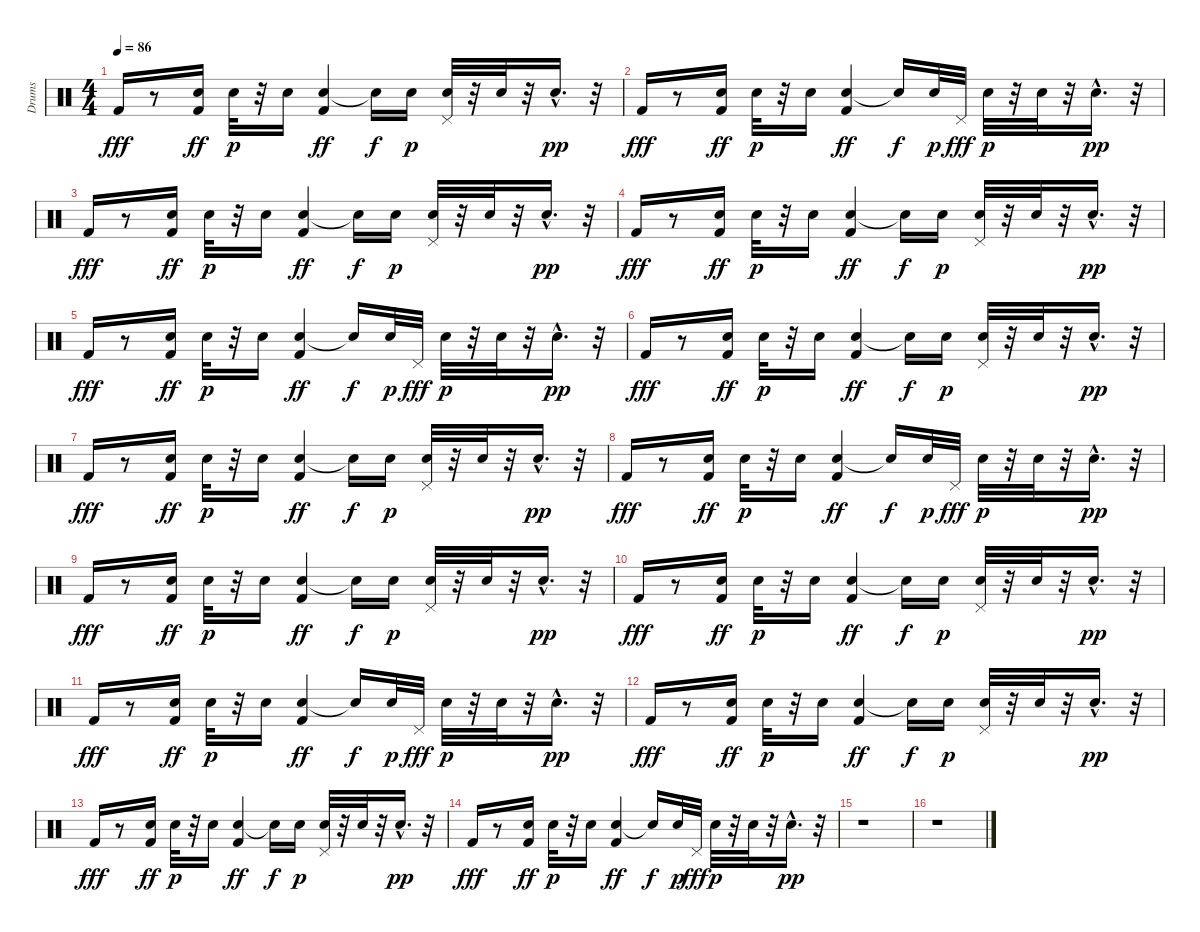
\track ("Drums" "Drums") {instrument percussion}
\staff {score}
\articulation defaults
\ts (4 4)
\tempo 86
\clef neutral
\ks c "Kick (hit) 2".16{dy fff}
r.8 ("Snare (hit) 2" "Kick (hit) 2").16{dy ff} "Snare (hit) 2".32{dy p} r.32 "Snare (hit) 2".16 ("Snare (hit) 2" "Kick (hit) 2").4{dy ff} "Snare (hit)"{t}.16{dy f} "Snare (hit) 2".16{dy p} ("Pedal Hi-Hat (hit)" "Snare (hit) 2").32 r.32 "Snare (hit) 2".32 r.32 "Snare (hit) 2"{hac}.16{d dy pp} r.32 |
"Kick (hit) 2".16{dy fff} r.8 ("Snare (hit) 2" "Kick (hit) 2").16{dy ff} "Snare (hit) 2".32{dy p} r.32 "Snare (hit) 2".16 ("Snare (hit) 2" "Kick (hit) 2").4{dy ff} "Snare (hit)"{t}.16{dy f} "Snare (hit) 2".32{dy p} "Pedal Hi-Hat (hit)".32{dy fff} "Snare (hit) 2".32{dy p} r.32 "Snare (hit) 2".32 r.32 "Snare (hit) 2"{hac}.16{d dy pp} r.32 |
"Kick (hit) 2".16{dy fff} r.8 ("Snare (hit) 2" "Kick (hit) 2").16{dy ff} "Snare (hit) 2".32{dy p} r.32 "Snare (hit) 2".16 ("Snare (hit) 2" "Kick (hit) 2").4{dy ff} "Snare (hit)"{t}.16{dy f} "Snare (hit) 2".16{dy p} ("Pedal Hi-Hat (hit)" "Snare (hit) 2").32 r.32 "Snare (hit) 2".32 r.32 "Snare (hit) 2"{hac}.16{d dy pp} r.32 |
"Kick (hit) 2".16{dy fff} r.8 ("Snare (hit) 2" "Kick (hit) 2").16{dy ff} "Snare (hit) 2".32{dy p} r.32 "Snare (hit) 2".16 ("Snare (hit) 2" "Kick (hit) 2").4{dy ff} "Snare (hit)"{t}.16{dy f} "Snare (hit) 2".16{dy p} ("Pedal Hi-Hat (hit)" "Snare (hit) 2").32 r.32 "Snare (hit) 2".32 r.32 "Snare (hit) 2"{hac}.16{d dy pp} r.32 |
"Kick (hit) 2".16{dy fff} r.8 ("Snare (hit) 2" "Kick (hit) 2").16{dy ff} "Snare (hit) 2".32{dy p} r.32 "Snare (hit) 2".16 ("Snare (hit) 2" "Kick (hit) 2").4{dy ff} "Snare (hit)"{t}.16{dy f} "Snare (hit) 2".32{dy p} "Pedal Hi-Hat (hit)".32{dy fff} "Snare (hit) 2".32{dy p} r.32 "Snare (hit) 2".32 r.32 "Snare (hit) 2"{hac}.16{d dy pp} r.32 |
"Kick (hit) 2".16{dy fff} r.8 ("Snare (hit) 2" "Kick (hit) 2").16{dy ff} "Snare (hit) 2".32{dy p} r.32 "Snare (hit) 2".16 ("Snare (hit) 2" "Kick (hit) 2").4{dy ff} "Snare (hit)"{t}.16{dy f} "Snare (hit) 2".16{dy p} ("Pedal Hi-Hat (hit)" "Snare (hit) 2").32 r.32 "Snare (hit) 2".32 r.32 "Snare (hit) 2"{hac}.16{d dy pp} r.32 |
"Kick (hit) 2".16{dy fff} r.8 ("Snare (hit) 2" "Kick (hit) 2").16{dy ff} "Snare (hit) 2".32{dy p} r.32 "Snare (hit) 2".16 ("Snare (hit) 2" "Kick (hit) 2").4{dy ff} "Snare (hit)"{t}.16{dy f} "Snare (hit) 2".16{dy p} ("Pedal Hi-Hat (hit)" "Snare (hit) 2").32 r.32 "Snare (hit) 2".32 r.32 "Snare (hit) 2"{hac}.16{d dy pp} r.32 |
"Kick (hit) 2".16{dy fff} r.8 ("Snare (hit) 2" "Kick (hit) 2").16{dy ff} "Snare (hit) 2".32{dy p} r.32 "Snare (hit) 2".16 ("Snare (hit) 2" "Kick (hit) 2").4{dy ff} "Snare (hit)"{t}.16{dy f} "Snare (hit) 2".32{dy p} "Pedal Hi-Hat (hit)".32{dy fff} "Snare (hit) 2".32{dy p} r.32 "Snare (hit) 2".32 r.32 "Snare (hit) 2"{hac}.16{d dy pp} r.32 |
"Kick (hit) 2".16{dy fff} r.8 ("Snare (hit) 2" "Kick (hit) 2").16{dy ff} "Snare (hit) 2".32{dy p} r.32 "Snare (hit) 2".16 ("Snare (hit) 2" "Kick (hit) 2").4{dy ff} "Snare (hit)"{t}.16{dy f} "Snare (hit) 2".16{dy p} ("Pedal Hi-Hat (hit)" "Snare (hit) 2").32 r.32 "Snare (hit) 2".32 r.32 "Snare (hit) 2"{hac}.16{d dy pp} r.32 |
"Kick (hit) 2".16{dy fff} r.8 ("Snare (hit) 2" "Kick (hit) 2").16{dy ff} "Snare (hit) 2".32{dy p} r.32 "Snare (hit) 2".16 ("Snare (hit) 2" "Kick (hit) 2").4{dy ff} "Snare (hit)"{t}.16{dy f} "Snare (hit) 2".16{dy p} ("Pedal Hi-Hat (hit)" "Snare (hit) 2").32 r.32 "Snare (hit) 2".32 r.32 "Snare (hit) 2"{hac}.16{d dy pp} r.32 |
"Kick (hit) 2".16{dy fff} r.8 ("Snare (hit) 2" "Kick (hit) 2").16{dy ff} "Snare (hit) 2".32{dy p} r.32 "Snare (hit) 2".16 ("Snare (hit) 2" "Kick (hit) 2").4{dy ff} "Snare (hit)"{t}.16{dy f} "Snare (hit) 2".32{dy p} "Pedal Hi-Hat (hit)".32{dy fff} "Snare (hit) 2".32{dy p} r.32 "Snare (hit) 2".32 r.32 "Snare (hit) 2"{hac}.16{d dy pp} r.32 |
"Kick (hit) 2".16{dy fff} r.8 ("Snare (hit) 2" "Kick (hit) 2").16{dy ff} "Snare (hit) 2".32{dy p} r.32 "Snare (hit) 2".16 ("Snare (hit) 2" "Kick (hit) 2").4{dy ff} "Snare (hit)"{t}.16{dy f} "Snare (hit) 2".16{dy p} ("Pedal Hi-Hat (hit)" "Snare (hit) 2").32 r.32 "Snare (hit) 2".32 r.32 "Snare (hit) 2"{hac}.16{d dy pp} r.32 |
"Kick (hit) 2".16{dy fff} r.8 ("Snare (hit) 2" "Kick (hit) 2").16{dy ff} "Snare (hit) 2".32{dy p} r.32 "Snare (hit) 2".16 ("Snare (hit) 2" "Kick (hit) 2").4{dy ff} "Snare (hit)"{t}.16{dy f} "Snare (hit) 2".16{dy p} ("Pedal Hi-Hat (hit)" "Snare (hit) 2").32 r.32 "Snare (hit) 2".32 r.32 "Snare (hit) 2"{hac}.16{d dy pp} r.32 |
"Kick (hit) 2".16{dy fff} r.8 ("Snare (hit) 2" "Kick (hit) 2").16{dy ff} "Snare (hit) 2".32{dy p} r.32 "Snare (hit) 2".16 ("Snare (hit) 2" "Kick (hit) 2").4{dy ff} "Snare (hit)"{t}.16{dy f} "Snare (hit) 2".32{dy p} "Pedal Hi-Hat (hit)".32{dy fff} "Snare (hit) 2".32{dy p} r.32 "Snare (hit) 2".32 r.32 "Snare (hit) 2"{hac}.16{d dy pp} r.32 |
r.1 |
r.1
